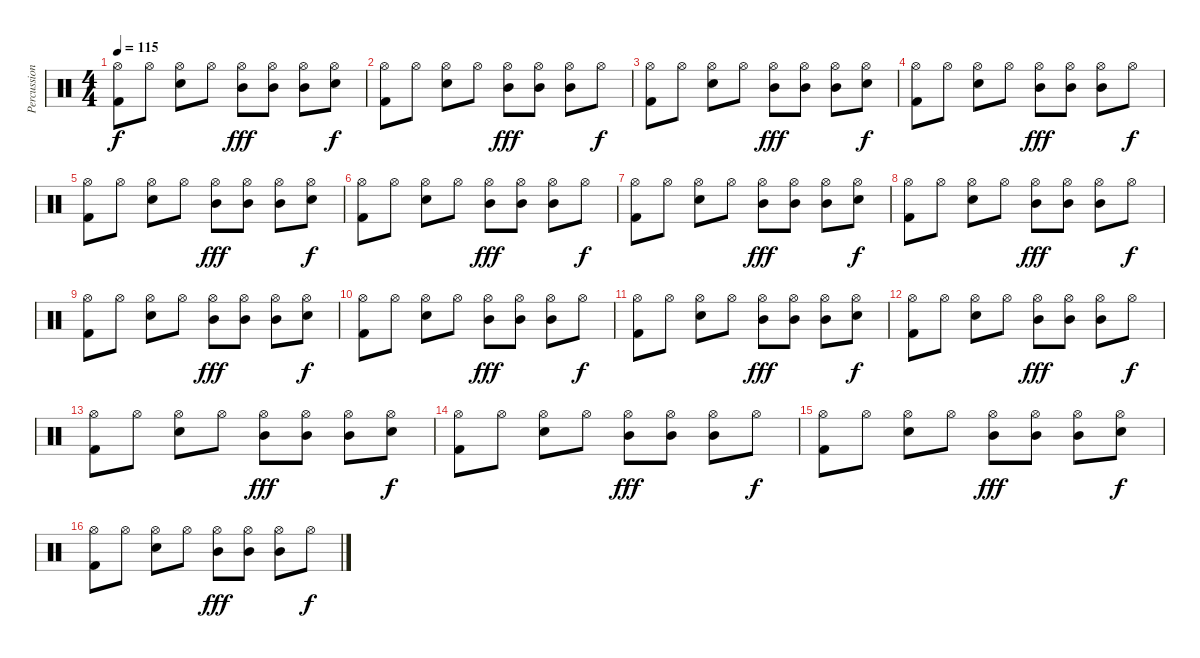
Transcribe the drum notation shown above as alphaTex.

\track ("Percussions" "Percussion") {instrument percussion}
\staff {score}
\articulation defaults
\ts (4 4)
\tempo 115
\clef neutral
\ks c
("Hi-Hat (open)" "Kick (hit) 2").8{dy f} "Hi-Hat (open)".8 ("Hi-Hat (open)" "Electric Snare (hit)").8 "Hi-Hat (open)".8 ("Hi-Hat (open)" "Mid Tom (hit)").8{dy fff} ("Hi-Hat (open)" "Mid Tom (hit)").8 ("Hi-Hat (open)" "Mid Tom (hit)").8 ("Hi-Hat (open)" "Electric Snare (hit)").8{dy f} |
("Hi-Hat (open)" "Kick (hit) 2").8 "Hi-Hat (open)".8 ("Hi-Hat (open)" "Electric Snare (hit)").8 "Hi-Hat (open)".8 ("Hi-Hat (open)" "Mid Tom (hit)").8{dy fff} ("Hi-Hat (open)" "Mid Tom (hit)").8 ("Hi-Hat (open)" "Mid Tom (hit)").8 "Hi-Hat (open)".8{dy f} |
("Hi-Hat (open)" "Kick (hit) 2").8 "Hi-Hat (open)".8 ("Hi-Hat (open)" "Electric Snare (hit)").8 "Hi-Hat (open)".8 ("Hi-Hat (open)" "Mid Tom (hit)").8{dy fff} ("Hi-Hat (open)" "Mid Tom (hit)").8 ("Hi-Hat (open)" "Mid Tom (hit)").8 ("Hi-Hat (open)" "Electric Snare (hit)").8{dy f} |
("Hi-Hat (open)" "Kick (hit) 2").8 "Hi-Hat (open)".8 ("Hi-Hat (open)" "Electric Snare (hit)").8 "Hi-Hat (open)".8 ("Hi-Hat (open)" "Mid Tom (hit)").8{dy fff} ("Hi-Hat (open)" "Mid Tom (hit)").8 ("Hi-Hat (open)" "Mid Tom (hit)").8 "Hi-Hat (open)".8{dy f} |
("Hi-Hat (open)" "Kick (hit) 2").8 "Hi-Hat (open)".8 ("Hi-Hat (open)" "Electric Snare (hit)").8 "Hi-Hat (open)".8 ("Hi-Hat (open)" "Mid Tom (hit)").8{dy fff} ("Hi-Hat (open)" "Mid Tom (hit)").8 ("Hi-Hat (open)" "Mid Tom (hit)").8 ("Hi-Hat (open)" "Electric Snare (hit)").8{dy f} |
("Hi-Hat (open)" "Kick (hit) 2").8 "Hi-Hat (open)".8 ("Hi-Hat (open)" "Electric Snare (hit)").8 "Hi-Hat (open)".8 ("Hi-Hat (open)" "Mid Tom (hit)").8{dy fff} ("Hi-Hat (open)" "Mid Tom (hit)").8 ("Hi-Hat (open)" "Mid Tom (hit)").8 "Hi-Hat (open)".8{dy f} |
("Hi-Hat (open)" "Kick (hit) 2").8 "Hi-Hat (open)".8 ("Hi-Hat (open)" "Electric Snare (hit)").8 "Hi-Hat (open)".8 ("Hi-Hat (open)" "Mid Tom (hit)").8{dy fff} ("Hi-Hat (open)" "Mid Tom (hit)").8 ("Hi-Hat (open)" "Mid Tom (hit)").8 ("Hi-Hat (open)" "Electric Snare (hit)").8{dy f} |
("Hi-Hat (open)" "Kick (hit) 2").8 "Hi-Hat (open)".8 ("Hi-Hat (open)" "Electric Snare (hit)").8 "Hi-Hat (open)".8 ("Hi-Hat (open)" "Mid Tom (hit)").8{dy fff} ("Hi-Hat (open)" "Mid Tom (hit)").8 ("Hi-Hat (open)" "Mid Tom (hit)").8 "Hi-Hat (open)".8{dy f} |
("Hi-Hat (open)" "Kick (hit) 2").8 "Hi-Hat (open)".8 ("Hi-Hat (open)" "Electric Snare (hit)").8 "Hi-Hat (open)".8 ("Hi-Hat (open)" "Mid Tom (hit)").8{dy fff} ("Hi-Hat (open)" "Mid Tom (hit)").8 ("Hi-Hat (open)" "Mid Tom (hit)").8 ("Hi-Hat (open)" "Electric Snare (hit)").8{dy f} |
("Hi-Hat (open)" "Kick (hit) 2").8 "Hi-Hat (open)".8 ("Hi-Hat (open)" "Electric Snare (hit)").8 "Hi-Hat (open)".8 ("Hi-Hat (open)" "Mid Tom (hit)").8{dy fff} ("Hi-Hat (open)" "Mid Tom (hit)").8 ("Hi-Hat (open)" "Mid Tom (hit)").8 "Hi-Hat (open)".8{dy f} |
("Hi-Hat (open)" "Kick (hit) 2").8 "Hi-Hat (open)".8 ("Hi-Hat (open)" "Electric Snare (hit)").8 "Hi-Hat (open)".8 ("Hi-Hat (open)" "Mid Tom (hit)").8{dy fff} ("Hi-Hat (open)" "Mid Tom (hit)").8 ("Hi-Hat (open)" "Mid Tom (hit)").8 ("Hi-Hat (open)" "Electric Snare (hit)").8{dy f} |
("Hi-Hat (open)" "Kick (hit) 2").8 "Hi-Hat (open)".8 ("Hi-Hat (open)" "Electric Snare (hit)").8 "Hi-Hat (open)".8 ("Hi-Hat (open)" "Mid Tom (hit)").8{dy fff} ("Hi-Hat (open)" "Mid Tom (hit)").8 ("Hi-Hat (open)" "Mid Tom (hit)").8 "Hi-Hat (open)".8{dy f} |
("Hi-Hat (open)" "Kick (hit) 2").8 "Hi-Hat (open)".8 ("Hi-Hat (open)" "Electric Snare (hit)").8 "Hi-Hat (open)".8 ("Hi-Hat (open)" "Mid Tom (hit)").8{dy fff} ("Hi-Hat (open)" "Mid Tom (hit)").8 ("Hi-Hat (open)" "Mid Tom (hit)").8 ("Hi-Hat (open)" "Electric Snare (hit)").8{dy f} |
("Hi-Hat (open)" "Kick (hit) 2").8 "Hi-Hat (open)".8 ("Hi-Hat (open)" "Electric Snare (hit)").8 "Hi-Hat (open)".8 ("Hi-Hat (open)" "Mid Tom (hit)").8{dy fff} ("Hi-Hat (open)" "Mid Tom (hit)").8 ("Hi-Hat (open)" "Mid Tom (hit)").8 "Hi-Hat (open)".8{dy f} |
("Hi-Hat (open)" "Kick (hit) 2").8 "Hi-Hat (open)".8 ("Hi-Hat (open)" "Electric Snare (hit)").8 "Hi-Hat (open)".8 ("Hi-Hat (open)" "Mid Tom (hit)").8{dy fff} ("Hi-Hat (open)" "Mid Tom (hit)").8 ("Hi-Hat (open)" "Mid Tom (hit)").8 ("Hi-Hat (open)" "Electric Snare (hit)").8{dy f} |
("Hi-Hat (open)" "Kick (hit) 2").8 "Hi-Hat (open)".8 ("Hi-Hat (open)" "Electric Snare (hit)").8 "Hi-Hat (open)".8 ("Hi-Hat (open)" "Mid Tom (hit)").8{dy fff} ("Hi-Hat (open)" "Mid Tom (hit)").8 ("Hi-Hat (open)" "Mid Tom (hit)").8 "Hi-Hat (open)".8{dy f}
